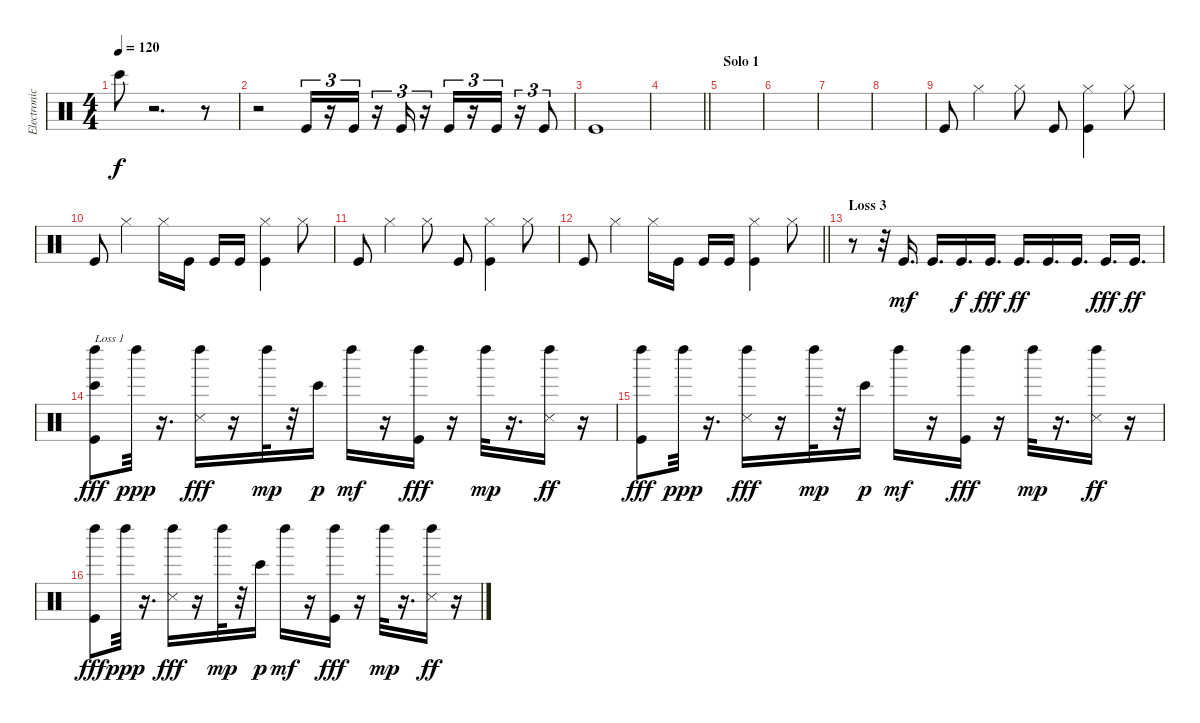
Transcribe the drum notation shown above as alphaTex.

\track ("Electronic Drums" "Electronic") {instrument percussion}
\staff {score}
\articulation defaults
\ts (4 4)
\tempo 120
\clef neutral
\ks c "Bongo High (hit)".8{dy f}
r.2{d} r.8 |
r.2 "Kick (hit)".16{tu (3 2)} r.16{tu (3 2)} "Kick (hit)".16{tu (3 2)} r.16{tu (3 2)} "Kick (hit)".16{tu (3 2)} r.16{tu (3 2)} "Kick (hit)".16{tu (3 2)} r.16{tu (3 2)} "Kick (hit)".16{tu (3 2)} r.16{tu (3 2)} "Kick (hit)".8{tu (3 2)} |
"Kick (hit)".1 |
\barLineRight lightlight
|
\section ("" "Solo 1")
|
|
|
|
"Kick (hit)".8 "Hi-Hat (closed)".4 "Hi-Hat (closed)".8 "Kick (hit)".8 ("Hi-Hat (closed)" "Kick (hit)").4 "Hi-Hat (closed)".8 |
"Kick (hit)".8 "Hi-Hat (closed)".4 "Hi-Hat (closed)".16 "Kick (hit)".16 "Kick (hit)".16 "Kick (hit)".16 ("Hi-Hat (closed)" "Kick (hit)").4 "Hi-Hat (closed)".8 |
"Kick (hit)".8 "Hi-Hat (closed)".4 "Hi-Hat (closed)".8 "Kick (hit)".8 ("Hi-Hat (closed)" "Kick (hit)").4 "Hi-Hat (closed)".8 |
\barLineRight lightlight "Kick (hit)".8 "Hi-Hat (closed)".4 "Hi-Hat (closed)".16 "Kick (hit)".16 "Kick (hit)".16 "Kick (hit)".16
("Hi-Hat (closed)" "Kick (hit)").4 "Hi-Hat (closed)".8 |
\section ("" "Loss 3")
r.8 r.32 "Kick (hit)".16{d dy mf} "Kick (hit)".16{d} "Kick (hit)".16{d dy f} "Kick (hit)".16{d dy fff} "Kick (hit)".16{d dy ff} "Kick (hit)".16{d} "Kick (hit)".16{d} "Kick (hit)".16{d dy fff} "Kick (hit)".16{d dy ff} |
("Left Maraca (hit)" "Bongo High (hit)" "Kick (hit)").8{txt "Loss 1" dy fff} "Left Maraca (hit)".32{dy ppp} r.16{d} ("Left Maraca (hit)" "Snare (side stick) 3").16{dy fff} r.16 "Left Maraca (hit)".32{dy mp} r.32 "Bongo High (hit)".16{dy p} "Left Maraca (hit)".16{dy mf} r.16 ("Left Maraca (hit)" "Kick (hit)").16{dy fff} r.16 "Left Maraca (hit)".32{dy mp} r.16{d} ("Left Maraca (hit)" "Snare (side stick) 3").16{dy ff} r.16 |
("Left Maraca (hit)" "Kick (hit)").8{dy fff} "Left Maraca (hit)".32{dy ppp} r.16{d} ("Left Maraca (hit)" "Snare (side stick) 3").16{dy fff} r.16 "Left Maraca (hit)".32{dy mp} r.32 "Bongo High (hit)".16{dy p} "Left Maraca (hit)".16{dy mf} r.16 ("Left Maraca (hit)" "Kick (hit)").16{dy fff} r.16 "Left Maraca (hit)".32{dy mp} r.16{d} ("Left Maraca (hit)" "Snare (side stick) 3").16{dy ff} r.16 |
("Left Maraca (hit)" "Kick (hit)").8{dy fff} "Left Maraca (hit)".32{dy ppp} r.16{d} ("Left Maraca (hit)" "Snare (side stick) 3").16{dy fff} r.16 "Left Maraca (hit)".32{dy mp} r.32 "Bongo High (hit)".16{dy p} "Left Maraca (hit)".16{dy mf} r.16 ("Left Maraca (hit)" "Kick (hit)").16{dy fff} r.16 "Left Maraca (hit)".32{dy mp} r.16{d} ("Left Maraca (hit)" "Snare (side stick) 3").16{dy ff} r.16
